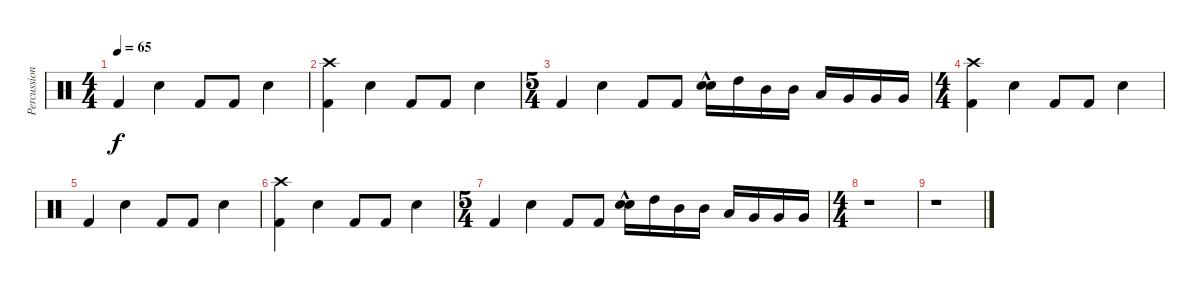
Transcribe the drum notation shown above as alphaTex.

\track ("Percussions" "Percussion") {instrument percussion}
\staff {score}
\articulation defaults
\ts (4 4)
\tempo 65
\clef neutral
\ks c "Kick (hit) 2".4{dy f} "Snare (hit) 2".4 "Kick (hit) 2".8 "Kick (hit) 2".8 "Snare (hit) 2".4
|
("Crash high (hit)" "Kick (hit) 2").4 "Snare (hit) 2".4 "Kick (hit) 2".8 "Kick (hit) 2".8 "Snare (hit) 2".4 |
\ts (5 4)
"Kick (hit) 2".4 "Snare (hit) 2".4 "Kick (hit) 2".8 "Kick (hit) 2".8 ("Snare (hit) 2"{hac} "Electric Snare (hit)").16 "High Tom (hit)".16 "Mid Tom (hit)".16 "Mid Tom (hit)".16 "Low Tom (hit)".16 "Very Low Tom (hit)".16 "Very Low Tom (hit)".16 "Very Low Tom (hit)".16 |
\ts (4 4)
("Crash high (hit)" "Kick (hit) 2").4 "Snare (hit) 2".4 "Kick (hit) 2".8 "Kick (hit) 2".8 "Snare (hit) 2".4 |
"Kick (hit) 2".4 "Snare (hit) 2".4 "Kick (hit) 2".8 "Kick (hit) 2".8 "Snare (hit) 2".4 |
("Crash high (hit)" "Kick (hit) 2").4 "Snare (hit) 2".4 "Kick (hit) 2".8 "Kick (hit) 2".8 "Snare (hit) 2".4 |
\ts (5 4)
"Kick (hit) 2".4 "Snare (hit) 2".4 "Kick (hit) 2".8 "Kick (hit) 2".8 ("Snare (hit) 2"{hac} "Electric Snare (hit)").16 "High Tom (hit)".16 "Mid Tom (hit)".16 "Mid Tom (hit)".16 "Low Tom (hit)".16 "Very Low Tom (hit)".16 "Very Low Tom (hit)".16 "Very Low Tom (hit)".16 |
\ts (4 4)
r.1 |
r.1
